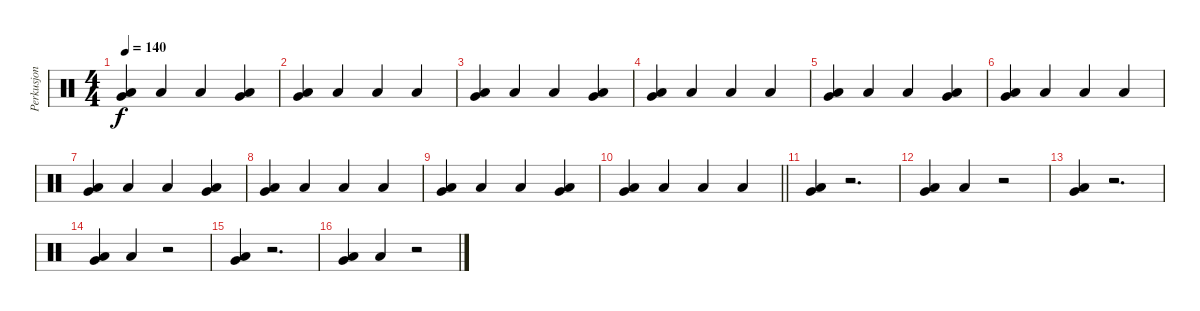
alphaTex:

\track ("Perkusjon" "Perkusjon") {instrument percussion}
\staff {score}
\articulation defaults
\ts (4 4)
\tempo 140
\clef neutral
\ks c
("Very Low Tom (hit)" "Low Floor Tom (hit)").4{dy f} "Low Floor Tom (hit)".4 "Low Floor Tom (hit)".4 ("Very Low Tom (hit)" "Low Floor Tom (hit)").4 |
("Very Low Tom (hit)" "Low Floor Tom (hit)").4 "Low Floor Tom (hit)".4 "Low Floor Tom (hit)".4 "Low Floor Tom (hit)".4 |
("Very Low Tom (hit)" "Low Floor Tom (hit)").4 "Low Floor Tom (hit)".4 "Low Floor Tom (hit)".4 ("Very Low Tom (hit)" "Low Floor Tom (hit)").4 |
("Very Low Tom (hit)" "Low Floor Tom (hit)").4 "Low Floor Tom (hit)".4 "Low Floor Tom (hit)".4 "Low Floor Tom (hit)".4 |
("Very Low Tom (hit)" "Low Floor Tom (hit)").4 "Low Floor Tom (hit)".4 "Low Floor Tom (hit)".4 ("Very Low Tom (hit)" "Low Floor Tom (hit)").4 |
("Very Low Tom (hit)" "Low Floor Tom (hit)").4 "Low Floor Tom (hit)".4 "Low Floor Tom (hit)".4 "Low Floor Tom (hit)".4 |
("Very Low Tom (hit)" "Low Floor Tom (hit)").4 "Low Floor Tom (hit)".4 "Low Floor Tom (hit)".4 ("Very Low Tom (hit)" "Low Floor Tom (hit)").4 |
("Very Low Tom (hit)" "Low Floor Tom (hit)").4 "Low Floor Tom (hit)".4 "Low Floor Tom (hit)".4 "Low Floor Tom (hit)".4 |
("Very Low Tom (hit)" "Low Floor Tom (hit)").4 "Low Floor Tom (hit)".4 "Low Floor Tom (hit)".4 ("Very Low Tom (hit)" "Low Floor Tom (hit)").4 |
\barLineRight lightlight
("Very Low Tom (hit)" "Low Floor Tom (hit)").4 "Low Floor Tom (hit)".4 "Low Floor Tom (hit)".4 "Low Floor Tom (hit)".4 |
\section ("" "")
("Very Low Tom (hit)" "Low Floor Tom (hit)").4 r.2{d} |
("Very Low Tom (hit)" "Low Floor Tom (hit)").4 "Low Floor Tom (hit)".4 r.2 |
("Very Low Tom (hit)" "Low Floor Tom (hit)").4 r.2{d} |
("Very Low Tom (hit)" "Low Floor Tom (hit)").4 "Low Floor Tom (hit)".4 r.2 |
("Very Low Tom (hit)" "Low Floor Tom (hit)").4 r.2{d} |
("Very Low Tom (hit)" "Low Floor Tom (hit)").4 "Low Floor Tom (hit)".4 r.2
